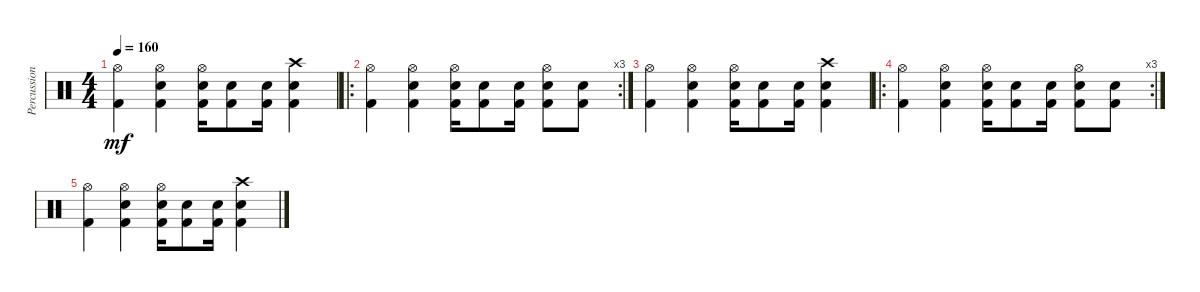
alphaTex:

\track ("Percussion" "Percussion") {instrument percussion}
\staff {score}
\articulation defaults
\ts (4 4)
\tempo 160
\clef neutral
\ks c
("Hi-Hat (open)" "Kick (hit) 2").4{dy mf} ("Hi-Hat (open)" "Electric Snare (hit)" "Kick (hit) 2").4 ("Hi-Hat (open)" "Electric Snare (hit)" "Kick (hit) 2").16 ("Electric Snare (hit)" "Kick (hit) 2").8 ("Electric Snare (hit)" "Kick (hit) 2").16 ("Crash high (hit)" "Electric Snare (hit)" "Kick (hit) 2").4 |
\ro
\rc 3
("Hi-Hat (open)" "Kick (hit) 2").4 ("Hi-Hat (open)" "Electric Snare (hit)" "Kick (hit) 2").4 ("Hi-Hat (open)" "Electric Snare (hit)" "Kick (hit) 2").16 ("Electric Snare (hit)" "Kick (hit) 2").8 ("Electric Snare (hit)" "Kick (hit) 2").16 ("Hi-Hat (open)" "Electric Snare (hit)" "Kick (hit) 2").8 ("Electric Snare (hit)" "Kick (hit) 2").8 |
("Hi-Hat (open)" "Kick (hit) 2").4 ("Hi-Hat (open)" "Electric Snare (hit)" "Kick (hit) 2").4 ("Hi-Hat (open)" "Electric Snare (hit)" "Kick (hit) 2").16 ("Electric Snare (hit)" "Kick (hit) 2").8 ("Electric Snare (hit)" "Kick (hit) 2").16 ("Crash high (hit)" "Electric Snare (hit)" "Kick (hit) 2").4 |
\ro
\rc 3
("Hi-Hat (open)" "Kick (hit) 2").4 ("Hi-Hat (open)" "Electric Snare (hit)" "Kick (hit) 2").4 ("Hi-Hat (open)" "Electric Snare (hit)" "Kick (hit) 2").16 ("Electric Snare (hit)" "Kick (hit) 2").8 ("Electric Snare (hit)" "Kick (hit) 2").16 ("Hi-Hat (open)" "Electric Snare (hit)" "Kick (hit) 2").8 ("Electric Snare (hit)" "Kick (hit) 2").8 |
("Hi-Hat (open)" "Kick (hit) 2").4 ("Hi-Hat (open)" "Electric Snare (hit)" "Kick (hit) 2").4 ("Hi-Hat (open)" "Electric Snare (hit)" "Kick (hit) 2").16 ("Electric Snare (hit)" "Kick (hit) 2").8 ("Electric Snare (hit)" "Kick (hit) 2").16 ("Crash high (hit)" "Electric Snare (hit)" "Kick (hit) 2").4
